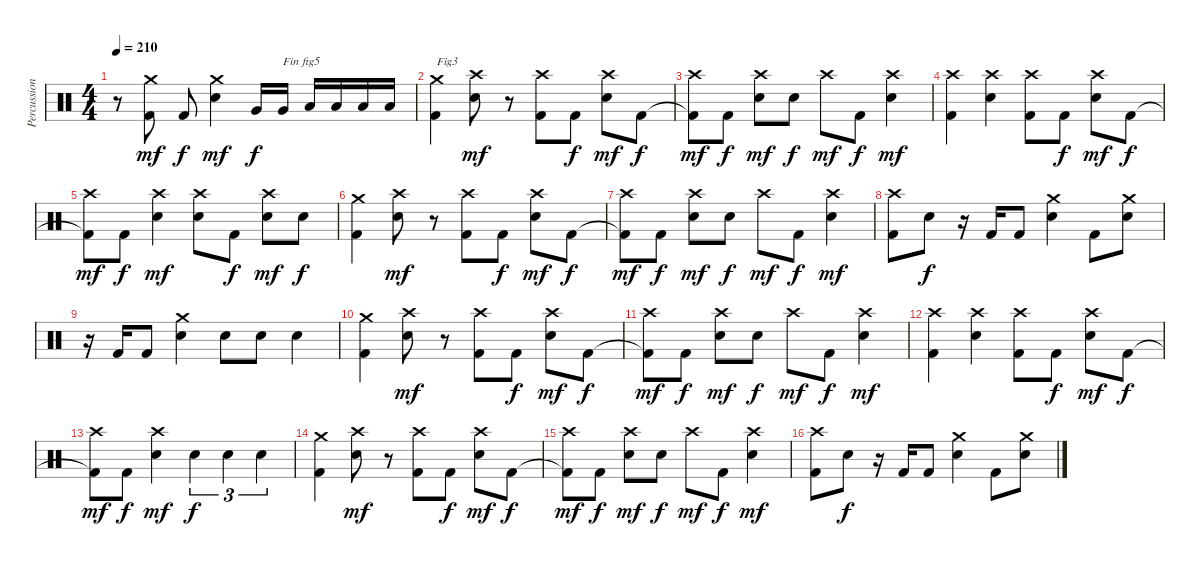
\track ("Percussions" "Percussion") {instrument percussion}
\staff {score}
\articulation defaults
\ts (4 4)
\tempo 210
\clef neutral
\ks c
r.8{dy mf} ("Kick (hit) 2" "Crash medium (hit)").8 "Kick (hit) 2".8{dy f} ("Electric Snare (hit)" "Crash medium (hit)").4{dy mf} "Very Low Tom (hit)".16{dy f} "Very Low Tom (hit)".16{txt "Fin fig5"} "Low Floor Tom (hit)".16 "Low Floor Tom (hit)".16 "Low Floor Tom (hit)".16 "Low Floor Tom (hit)".16 |
("Kick (hit) 2" "Crash medium (hit)").4{txt "Fig3"} ("Electric Snare (hit)" "Crash high (hit)").8{dy mf} r.8 ("Kick (hit) 2" "Crash high (hit)").8 "Kick (hit) 2".8{dy f} ("Electric Snare (hit)" "Crash high (hit)").8{dy mf} "Kick (hit) 2".8{dy f} |
("Kick (hit) 2"{t} "Crash high (hit)").8{dy mf} "Kick (hit) 2".8{dy f} ("Electric Snare (hit)" "Crash high (hit)").8{dy mf} "Electric Snare (hit)".8{dy f} "Crash high (hit)".8{dy mf} "Kick (hit) 2".8{dy f} ("Electric Snare (hit)" "Crash high (hit)").4{dy mf} |
("Kick (hit) 2" "Crash high (hit)").4 ("Electric Snare (hit)" "Crash high (hit)").4 ("Kick (hit) 2" "Crash high (hit)").8 "Kick (hit) 2".8{dy f} ("Electric Snare (hit)" "Crash high (hit)").8{dy mf} "Kick (hit) 2".8{dy f} |
("Kick (hit) 2"{t} "Crash high (hit)").8{dy mf} "Kick (hit) 2".8{dy f} ("Electric Snare (hit)" "Crash high (hit)").4{dy mf} ("Electric Snare (hit)" "Crash high (hit)").8 "Kick (hit) 2".8{dy f} ("Electric Snare (hit)" "Crash high (hit)").8{dy mf} "Electric Snare (hit)".8{dy f} |
("Kick (hit) 2" "Crash medium (hit)").4 ("Electric Snare (hit)" "Crash high (hit)").8{dy mf} r.8 ("Kick (hit) 2" "Crash high (hit)").8 "Kick (hit) 2".8{dy f} ("Electric Snare (hit)" "Crash high (hit)").8{dy mf} "Kick (hit) 2".8{dy f} |
("Kick (hit) 2"{t} "Crash high (hit)").8{dy mf} "Kick (hit) 2".8{dy f} ("Electric Snare (hit)" "Crash high (hit)").8{dy mf} "Electric Snare (hit)".8{dy f} "Crash high (hit)".8{dy mf} "Kick (hit) 2".8{dy f} ("Electric Snare (hit)" "Crash high (hit)").4{dy mf} |
("Kick (hit) 2" "Crash high (hit)").8 "Electric Snare (hit)".8{dy f} r.16 "Kick (hit) 2".16 "Kick (hit) 2".8 ("Electric Snare (hit)" "Crash medium (hit)").4 "Kick (hit) 2".8 ("Electric Snare (hit)" "Crash medium (hit)").8 |
r.16 "Kick (hit) 2".16 "Kick (hit) 2".8 ("Electric Snare (hit)" "Crash medium (hit)").4 "Electric Snare (hit)".8 "Electric Snare (hit)".8 "Electric Snare (hit)".4 |
("Kick (hit) 2" "Crash medium (hit)").4 ("Electric Snare (hit)" "Crash high (hit)").8{dy mf} r.8 ("Kick (hit) 2" "Crash high (hit)").8 "Kick (hit) 2".8{dy f} ("Electric Snare (hit)" "Crash high (hit)").8{dy mf} "Kick (hit) 2".8{dy f} |
("Kick (hit) 2"{t} "Crash high (hit)").8{dy mf} "Kick (hit) 2".8{dy f} ("Electric Snare (hit)" "Crash high (hit)").8{dy mf} "Electric Snare (hit)".8{dy f} "Crash high (hit)".8{dy mf} "Kick (hit) 2".8{dy f} ("Electric Snare (hit)" "Crash high (hit)").4{dy mf} |
("Kick (hit) 2" "Crash high (hit)").4 ("Electric Snare (hit)" "Crash high (hit)").4 ("Kick (hit) 2" "Crash high (hit)").8 "Kick (hit) 2".8{dy f} ("Electric Snare (hit)" "Crash high (hit)").8{dy mf} "Kick (hit) 2".8{dy f} |
("Kick (hit) 2"{t} "Crash high (hit)").8{dy mf} "Kick (hit) 2".8{dy f} ("Electric Snare (hit)" "Crash high (hit)").4{dy mf} "Electric Snare (hit)".4{tu (3 2) dy f} "Electric Snare (hit)".4{tu (3 2)} "Electric Snare (hit)".4{tu (3 2)} |
("Kick (hit) 2" "Crash medium (hit)").4 ("Electric Snare (hit)" "Crash high (hit)").8{dy mf} r.8 ("Kick (hit) 2" "Crash high (hit)").8 "Kick (hit) 2".8{dy f} ("Electric Snare (hit)" "Crash high (hit)").8{dy mf} "Kick (hit) 2".8{dy f} |
("Kick (hit) 2"{t} "Crash high (hit)").8{dy mf} "Kick (hit) 2".8{dy f} ("Electric Snare (hit)" "Crash high (hit)").8{dy mf} "Electric Snare (hit)".8{dy f} "Crash high (hit)".8{dy mf} "Kick (hit) 2".8{dy f} ("Electric Snare (hit)" "Crash high (hit)").4{dy mf} |
("Kick (hit) 2" "Crash high (hit)").8 "Electric Snare (hit)".8{dy f} r.16 "Kick (hit) 2".16 "Kick (hit) 2".8 ("Electric Snare (hit)" "Crash medium (hit)").4 "Kick (hit) 2".8 ("Electric Snare (hit)" "Crash medium (hit)").8
